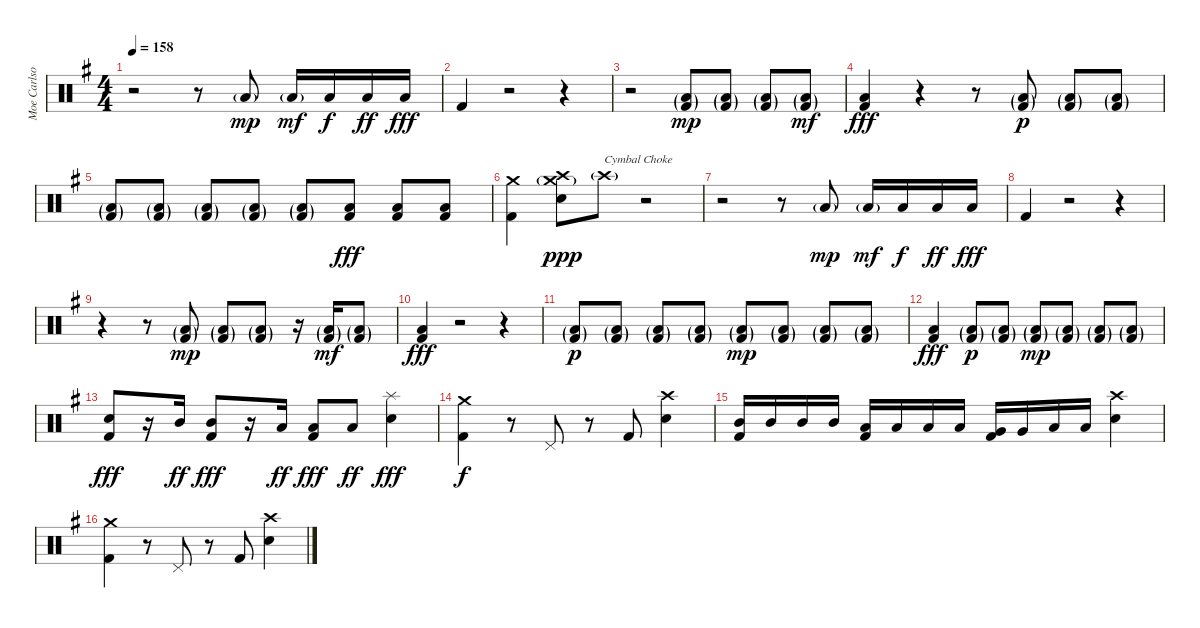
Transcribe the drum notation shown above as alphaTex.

\track ("Moe Carlson" "Moe Carlso") {instrument percussion}
\staff {score}
\articulation defaults
\ts (4 4)
\tempo 158
\clef neutral
\ks g
r.2{dy fff} r.8 "Low Floor Tom (hit)"{g}.8{dy mp} "Low Floor Tom (hit)"{g}.16{dy mf} "Low Floor Tom (hit)".16{dy f} "Low Floor Tom (hit)".16{dy ff} "Low Floor Tom (hit)".16{dy fff} |
"Kick (hit) 2".4 r.2 r.4 |
r.2 ("Low Floor Tom (hit)"{g} "Kick (hit) 2"{g}).8{dy mp} ("Low Floor Tom (hit)"{g} "Kick (hit) 2"{g}).8 ("Low Floor Tom (hit)"{g} "Kick (hit) 2"{g}).8 ("Low Floor Tom (hit)"{g} "Kick (hit) 2"{g}).8{dy mf} |
("Low Floor Tom (hit)" "Kick (hit) 2").4{dy fff} r.4 r.8 ("Low Floor Tom (hit)"{g} "Kick (hit) 2"{g}).8{dy p} ("Low Floor Tom (hit)"{g} "Kick (hit) 2"{g}).8 ("Low Floor Tom (hit)"{g} "Kick (hit) 2"{g}).8 |
("Low Floor Tom (hit)"{g} "Kick (hit) 2"{g}).8 ("Low Floor Tom (hit)"{g} "Kick (hit) 2"{g}).8 ("Low Floor Tom (hit)"{g} "Kick (hit) 2"{g}).8 ("Low Floor Tom (hit)"{g} "Kick (hit) 2"{g}).8 ("Low Floor Tom (hit)"{g} "Kick (hit) 2"{g}).8 ("Low Floor Tom (hit)" "Kick (hit) 2").8{dy fff} ("Low Floor Tom (hit)" "Kick (hit) 2").8 ("Low Floor Tom (hit)" "Kick (hit) 2").8 |
("Crash medium (hit)" "Kick (hit) 2").4 ("Crash high (hit)" "Crash medium (hit)"{g} "Electric Snare (hit)").8{dy ppp} "Crash high (hit)"{g}.8{txt "Cymbal Choke"} r.2 |
r.2 r.8 "Low Floor Tom (hit)"{g}.8{dy mp} "Low Floor Tom (hit)"{g}.16{dy mf} "Low Floor Tom (hit)".16{dy f} "Low Floor Tom (hit)".16{dy ff} "Low Floor Tom (hit)".16{dy fff} |
"Kick (hit) 2".4 r.2 r.4 |
r.4 r.8 ("Low Floor Tom (hit)"{g} "Kick (hit) 2"{g}).8{dy mp} ("Low Floor Tom (hit)"{g} "Kick (hit) 2"{g}).8 ("Low Floor Tom (hit)"{g} "Kick (hit) 2"{g}).8 r.16 ("Low Floor Tom (hit)"{g} "Kick (hit) 2"{g}).16{dy mf} ("Low Floor Tom (hit)"{g} "Kick (hit) 2"{g}).8 |
("Low Floor Tom (hit)" "Kick (hit) 2").4{dy fff} r.2 r.4 |
("Low Floor Tom (hit)"{g} "Kick (hit) 2"{g}).8{dy p} ("Low Floor Tom (hit)"{g} "Kick (hit) 2"{g}).8 ("Low Floor Tom (hit)"{g} "Kick (hit) 2"{g}).8 ("Low Floor Tom (hit)"{g} "Kick (hit) 2"{g}).8 ("Low Floor Tom (hit)"{g} "Kick (hit) 2"{g}).8{dy mp} ("Low Floor Tom (hit)"{g} "Kick (hit) 2"{g}).8 ("Low Floor Tom (hit)"{g} "Kick (hit) 2"{g}).8 ("Low Floor Tom (hit)"{g} "Kick (hit) 2"{g}).8 |
("Low Floor Tom (hit)" "Kick (hit) 2").4{dy fff} ("Low Floor Tom (hit)"{g} "Kick (hit) 2"{g}).8{dy p} ("Low Floor Tom (hit)"{g} "Kick (hit) 2"{g}).8 ("Low Floor Tom (hit)"{g} "Kick (hit) 2"{g}).8{dy mp} ("Low Floor Tom (hit)"{g} "Kick (hit) 2"{g}).8 ("Low Floor Tom (hit)"{g} "Kick (hit) 2"{g}).8 ("Low Floor Tom (hit)"{g} "Kick (hit) 2"{g}).8 |
("Electric Snare (hit)" "Kick (hit) 2").8{dy fff} r.16 "Mid Tom (hit)".16{dy ff} ("Mid Tom (hit)" "Kick (hit) 2").8{dy fff} r.16 "Low Tom (hit)".16{dy ff} ("Low Tom (hit)" "Kick (hit) 2").8{dy fff} "Low Tom (hit)".8{dy ff} ("Splash (hit)" "Electric Snare (hit)").4{dy fff} |
("Crash medium (hit)" "Kick (hit) 2").4{dy f} r.8 "Pedal Hi-Hat (hit)".8 r.8 "Kick (hit) 2".8 ("Crash high (hit)" "Electric Snare (hit)").4 |
("Mid Tom (hit)" "Kick (hit) 2").16 "Mid Tom (hit)".16 "Mid Tom (hit)".16 "Mid Tom (hit)".16 ("Low Tom (hit)" "Kick (hit) 2").16 "Low Tom (hit)".16 "Low Tom (hit)".16 "Low Tom (hit)".16 ("Very Low Tom (hit)" "Kick (hit) 2").16 "Very Low Tom (hit)".16 "Low Floor Tom (hit)".16 "Low Floor Tom (hit)".16 ("Crash high (hit)" "Electric Snare (hit)").4 |
("Crash medium (hit)" "Kick (hit) 2").4 r.8 "Pedal Hi-Hat (hit)".8 r.8 "Kick (hit) 2".8 ("Crash high (hit)" "Electric Snare (hit)").4
